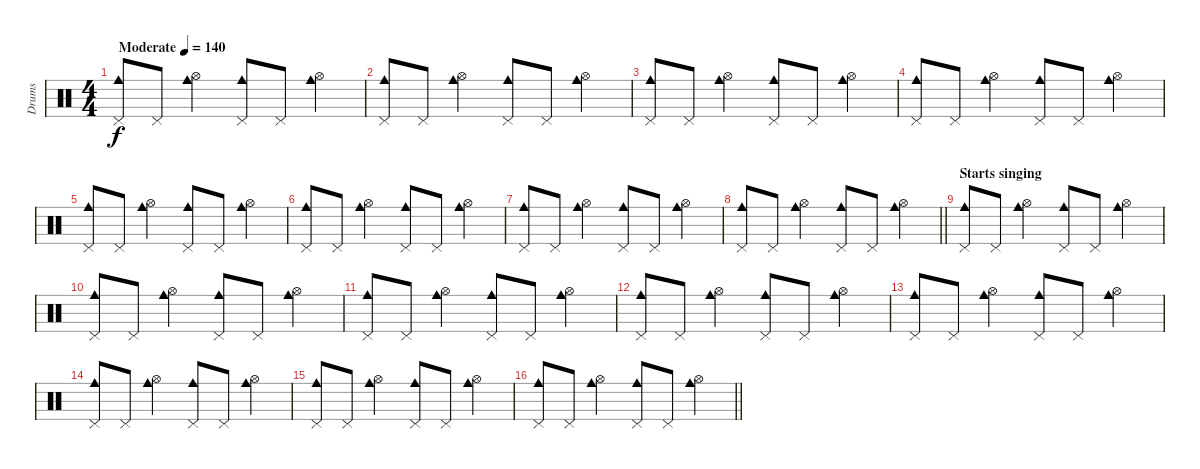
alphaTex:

\track ("Drums" "Drums") {instrument percussion}
\staff {score}
\articulation defaults
\ts (4 4)
\tempo (140 "Moderate")
\clef neutral
\ks c
("Cowbell medium (hit)" "Pedal Hi-Hat (hit)").8{dy f} "Pedal Hi-Hat (hit)".8 ("Cowbell medium (hit)" "Hi-Hat (open)").4 ("Cowbell medium (hit)" "Pedal Hi-Hat (hit)").8 "Pedal Hi-Hat (hit)".8 ("Cowbell medium (hit)" "Hi-Hat (open)").4 |
("Cowbell medium (hit)" "Pedal Hi-Hat (hit)").8 "Pedal Hi-Hat (hit)".8 ("Cowbell medium (hit)" "Hi-Hat (open)").4 ("Cowbell medium (hit)" "Pedal Hi-Hat (hit)").8 "Pedal Hi-Hat (hit)".8 ("Cowbell medium (hit)" "Hi-Hat (open)").4 |
("Cowbell medium (hit)" "Pedal Hi-Hat (hit)").8 "Pedal Hi-Hat (hit)".8 ("Cowbell medium (hit)" "Hi-Hat (open)").4 ("Cowbell medium (hit)" "Pedal Hi-Hat (hit)").8 "Pedal Hi-Hat (hit)".8 ("Cowbell medium (hit)" "Hi-Hat (open)").4 |
("Cowbell medium (hit)" "Pedal Hi-Hat (hit)").8 "Pedal Hi-Hat (hit)".8 ("Cowbell medium (hit)" "Hi-Hat (open)").4 ("Cowbell medium (hit)" "Pedal Hi-Hat (hit)").8 "Pedal Hi-Hat (hit)".8 ("Cowbell medium (hit)" "Hi-Hat (open)").4 |
("Cowbell medium (hit)" "Pedal Hi-Hat (hit)").8 "Pedal Hi-Hat (hit)".8 ("Cowbell medium (hit)" "Hi-Hat (open)").4 ("Cowbell medium (hit)" "Pedal Hi-Hat (hit)").8 "Pedal Hi-Hat (hit)".8 ("Cowbell medium (hit)" "Hi-Hat (open)").4 |
("Cowbell medium (hit)" "Pedal Hi-Hat (hit)").8 "Pedal Hi-Hat (hit)".8 ("Cowbell medium (hit)" "Hi-Hat (open)").4 ("Cowbell medium (hit)" "Pedal Hi-Hat (hit)").8 "Pedal Hi-Hat (hit)".8 ("Cowbell medium (hit)" "Hi-Hat (open)").4 |
("Cowbell medium (hit)" "Pedal Hi-Hat (hit)").8 "Pedal Hi-Hat (hit)".8 ("Cowbell medium (hit)" "Hi-Hat (open)").4 ("Cowbell medium (hit)" "Pedal Hi-Hat (hit)").8 "Pedal Hi-Hat (hit)".8 ("Cowbell medium (hit)" "Hi-Hat (open)").4 |
\barLineRight lightlight
("Cowbell medium (hit)" "Pedal Hi-Hat (hit)").8 "Pedal Hi-Hat (hit)".8 ("Cowbell medium (hit)" "Hi-Hat (open)").4 ("Cowbell medium (hit)" "Pedal Hi-Hat (hit)").8 "Pedal Hi-Hat (hit)".8 ("Cowbell medium (hit)" "Hi-Hat (open)").4 |
\section ("" "Starts singing")
("Cowbell medium (hit)" "Pedal Hi-Hat (hit)").8 "Pedal Hi-Hat (hit)".8 ("Cowbell medium (hit)" "Hi-Hat (open)").4 ("Cowbell medium (hit)" "Pedal Hi-Hat (hit)").8 "Pedal Hi-Hat (hit)".8 ("Cowbell medium (hit)" "Hi-Hat (open)").4 |
("Cowbell medium (hit)" "Pedal Hi-Hat (hit)").8 "Pedal Hi-Hat (hit)".8 ("Cowbell medium (hit)" "Hi-Hat (open)").4 ("Cowbell medium (hit)" "Pedal Hi-Hat (hit)").8 "Pedal Hi-Hat (hit)".8 ("Cowbell medium (hit)" "Hi-Hat (open)").4 |
("Cowbell medium (hit)" "Pedal Hi-Hat (hit)").8 "Pedal Hi-Hat (hit)".8 ("Cowbell medium (hit)" "Hi-Hat (open)").4 ("Cowbell medium (hit)" "Pedal Hi-Hat (hit)").8 "Pedal Hi-Hat (hit)".8 ("Cowbell medium (hit)" "Hi-Hat (open)").4 |
("Cowbell medium (hit)" "Pedal Hi-Hat (hit)").8 "Pedal Hi-Hat (hit)".8 ("Cowbell medium (hit)" "Hi-Hat (open)").4 ("Cowbell medium (hit)" "Pedal Hi-Hat (hit)").8 "Pedal Hi-Hat (hit)".8 ("Cowbell medium (hit)" "Hi-Hat (open)").4 |
("Cowbell medium (hit)" "Pedal Hi-Hat (hit)").8 "Pedal Hi-Hat (hit)".8 ("Cowbell medium (hit)" "Hi-Hat (open)").4 ("Cowbell medium (hit)" "Pedal Hi-Hat (hit)").8 "Pedal Hi-Hat (hit)".8 ("Cowbell medium (hit)" "Hi-Hat (open)").4 |
("Cowbell medium (hit)" "Pedal Hi-Hat (hit)").8 "Pedal Hi-Hat (hit)".8 ("Cowbell medium (hit)" "Hi-Hat (open)").4 ("Cowbell medium (hit)" "Pedal Hi-Hat (hit)").8 "Pedal Hi-Hat (hit)".8 ("Cowbell medium (hit)" "Hi-Hat (open)").4 |
("Cowbell medium (hit)" "Pedal Hi-Hat (hit)").8 "Pedal Hi-Hat (hit)".8 ("Cowbell medium (hit)" "Hi-Hat (open)").4 ("Cowbell medium (hit)" "Pedal Hi-Hat (hit)").8 "Pedal Hi-Hat (hit)".8 ("Cowbell medium (hit)" "Hi-Hat (open)").4 |
\barLineRight lightlight
("Cowbell medium (hit)" "Pedal Hi-Hat (hit)").8 "Pedal Hi-Hat (hit)".8 ("Cowbell medium (hit)" "Hi-Hat (open)").4 ("Cowbell medium (hit)" "Pedal Hi-Hat (hit)").8 "Pedal Hi-Hat (hit)".8 ("Cowbell medium (hit)" "Hi-Hat (open)").4
